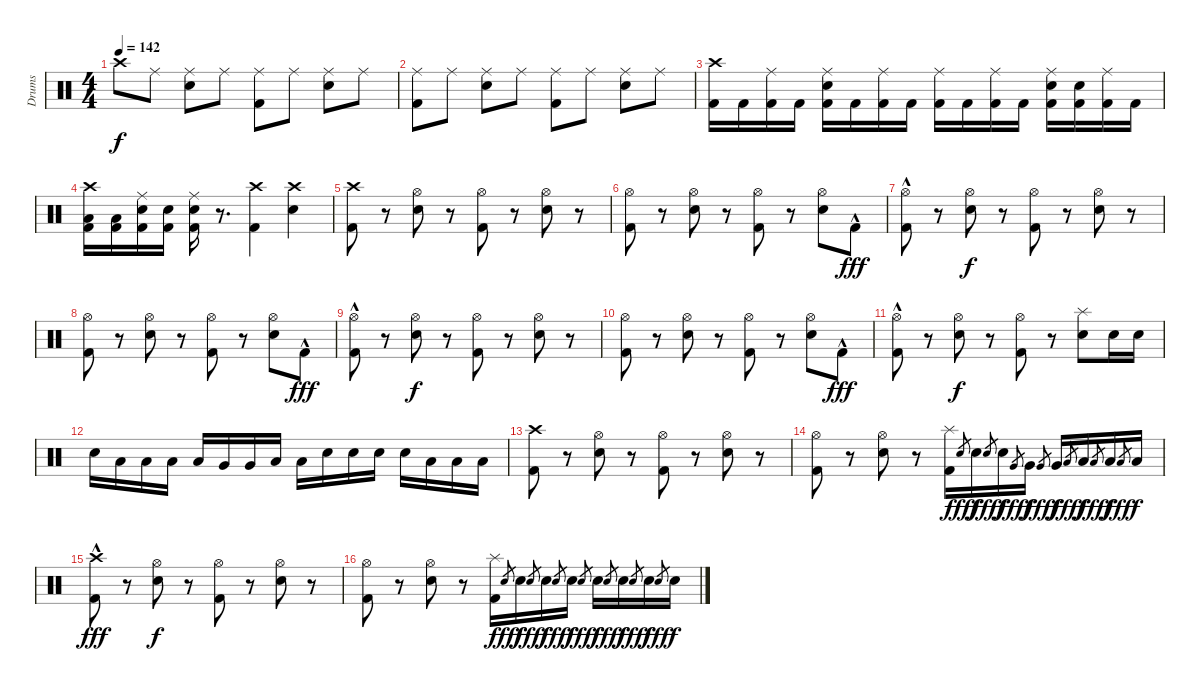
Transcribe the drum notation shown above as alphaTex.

\track ("Drums" "Drums") {instrument percussion}
\staff {score}
\articulation defaults
\ts (4 4)
\tempo 142
\clef neutral
\ks c "Crash high (hit)".8{dy f} "Ride (middle)".8
("Ride (middle)" "Electric Snare (hit)").8 "Ride (middle)".8 ("Ride (middle)" "Kick (hit) 2").8 "Ride (middle)".8 ("Ride (middle)" "Electric Snare (hit)").8 "Ride (middle)".8 |
("Ride (middle)" "Kick (hit) 2").8 "Ride (middle)".8 ("Ride (middle)" "Electric Snare (hit)").8 "Ride (middle)".8 ("Ride (middle)" "Kick (hit) 2").8 "Ride (middle)".8 ("Ride (middle)" "Electric Snare (hit)").8 "Ride (middle)".8 |
("Crash high (hit)" "Kick (hit) 2").16 "Kick (hit) 2".16 ("Ride (middle)" "Kick (hit) 2").16 "Kick (hit) 2".16 ("Ride (middle)" "Electric Snare (hit)" "Kick (hit) 2").16 "Kick (hit) 2".16 ("Ride (middle)" "Kick (hit) 2").16 "Kick (hit) 2".16 ("Ride (middle)" "Kick (hit) 2").16 "Kick (hit) 2".16 ("Ride (middle)" "Kick (hit) 2").16 "Kick (hit) 2".16 ("Ride (middle)" "Electric Snare (hit)" "Kick (hit) 2").16 ("Electric Snare (hit)" "Kick (hit) 2").16 ("Ride (middle)" "Kick (hit) 2").16 "Kick (hit) 2".16 |
("Crash high (hit)" "Low Floor Tom (hit)" "Kick (hit) 2").16 ("Low Floor Tom (hit)" "Kick (hit) 2").16 ("Ride (middle)" "Electric Snare (hit)" "Kick (hit) 2").16 ("Electric Snare (hit)" "Kick (hit) 2").16 ("Ride (middle)" "Snare (hit) 2" "Kick (hit) 2").16 r.8{d} ("Crash high (hit)" "Kick (hit) 2").4 ("Crash high (hit)" "Electric Snare (hit)").4 |
("Crash high (hit)" "Kick (hit) 2").8 r.8 ("Hi-Hat (open)" "Electric Snare (hit)").8 r.8 ("Hi-Hat (open)" "Kick (hit) 2").8 r.8 ("Hi-Hat (open)" "Electric Snare (hit)").8 r.8 |
("Hi-Hat (open)" "Kick (hit) 2").8 r.8 ("Hi-Hat (open)" "Electric Snare (hit)").8 r.8 ("Hi-Hat (open)" "Kick (hit) 2").8 r.8 ("Hi-Hat (open)" "Electric Snare (hit)").8 "Kick (hit) 2"{hac}.8{dy fff} |
("Hi-Hat (open)" "Kick (hit) 2"{hac}).8 r.8 ("Hi-Hat (open)" "Electric Snare (hit)").8{dy f} r.8 ("Hi-Hat (open)" "Kick (hit) 2").8 r.8 ("Hi-Hat (open)" "Electric Snare (hit)").8 r.8 |
("Hi-Hat (open)" "Kick (hit) 2").8 r.8 ("Hi-Hat (open)" "Electric Snare (hit)").8 r.8 ("Hi-Hat (open)" "Kick (hit) 2").8 r.8 ("Hi-Hat (open)" "Electric Snare (hit)").8 "Kick (hit) 2"{hac}.8{dy fff} |
("Hi-Hat (open)" "Kick (hit) 2"{hac}).8 r.8 ("Hi-Hat (open)" "Electric Snare (hit)").8{dy f} r.8 ("Hi-Hat (open)" "Kick (hit) 2").8 r.8 ("Hi-Hat (open)" "Electric Snare (hit)").8 r.8 |
("Hi-Hat (open)" "Kick (hit) 2").8 r.8 ("Hi-Hat (open)" "Electric Snare (hit)").8 r.8 ("Hi-Hat (open)" "Kick (hit) 2").8 r.8 ("Hi-Hat (open)" "Electric Snare (hit)").8 "Kick (hit) 2"{hac}.8{dy fff} |
("Hi-Hat (open)" "Kick (hit) 2"{hac}).8 r.8 ("Hi-Hat (open)" "Electric Snare (hit)").8{dy f} r.8 ("Hi-Hat (open)" "Kick (hit) 2").8 r.8 ("Splash (hit)" "Electric Snare (hit)").8 "Electric Snare (hit)".16 "Snare (hit) 2".16 |
"Snare (hit) 2".16 "Low Tom (hit)".16 "Low Tom (hit)".16 "Low Floor Tom (hit)".16 "Low Floor Tom (hit)".16 "Very Low Tom (hit)".16 "Very Low Tom (hit)".16 "Low Floor Tom (hit)".16 "Low Floor Tom (hit)".16 "Electric Snare (hit)".16 "Electric Snare (hit)".16 "Snare (hit) 2".16 "Snare (hit) 2".16 "Low Floor Tom (hit)".16 "Low Floor Tom (hit)".16 "Low Floor Tom (hit)".16 |
("Crash high (hit)" "Kick (hit) 2").8 r.8 ("Hi-Hat (open)" "Electric Snare (hit)").8 r.8 ("Hi-Hat (open)" "Kick (hit) 2").8 r.8 ("Hi-Hat (open)" "Electric Snare (hit)").8 r.8 |
("Hi-Hat (open)" "Kick (hit) 2").8 r.8 ("Hi-Hat (open)" "Electric Snare (hit)").8 r.8 ("Splash (hit)" "Kick (hit) 2").16 "Electric Snare (hit)".8{gr dy fff} "Electric Snare (hit)".16{dy f} "Electric Snare (hit)".8{gr dy fff} "Electric Snare (hit)".16{dy f} "Very Low Tom (hit)".8{gr dy fff} "Very Low Tom (hit)".16{dy f} "Very Low Tom (hit)".8{gr dy fff} "Very Low Tom (hit)".16{dy f} "Low Floor Tom (hit)".8{gr dy fff} "Low Floor Tom (hit)".16{dy f} "Low Floor Tom (hit)".8{gr dy fff} "Low Floor Tom (hit)".16{dy f} "Low Floor Tom (hit)".8{gr dy fff} "Low Floor Tom (hit)".16{dy f} |
("Crash high (hit)" "Kick (hit) 2"{hac}).8{dy fff} r.8 ("Hi-Hat (open)" "Electric Snare (hit)").8{dy f} r.8 ("Hi-Hat (open)" "Kick (hit) 2").8 r.8 ("Hi-Hat (open)" "Electric Snare (hit)").8 r.8 |
("Hi-Hat (open)" "Kick (hit) 2").8 r.8 ("Hi-Hat (open)" "Electric Snare (hit)").8 r.8 ("Splash (hit)" "Kick (hit) 2").16 "Electric Snare (hit)".8{gr dy fff} "Electric Snare (hit)".16{dy f} "Electric Snare (hit)".8{gr dy fff} "Electric Snare (hit)".16{dy f} "Electric Snare (hit)".8{gr dy fff} "Electric Snare (hit)".16{dy f} "Snare (hit) 2".8{gr dy fff} "Snare (hit) 2".16{dy f} "Snare (hit) 2".8{gr dy fff} "Snare (hit) 2".16{dy f} "Snare (hit) 2".8{gr dy fff} "Snare (hit) 2".16{dy f} "Snare (hit) 2".8{gr dy fff} "Snare (hit) 2".16{dy f}
